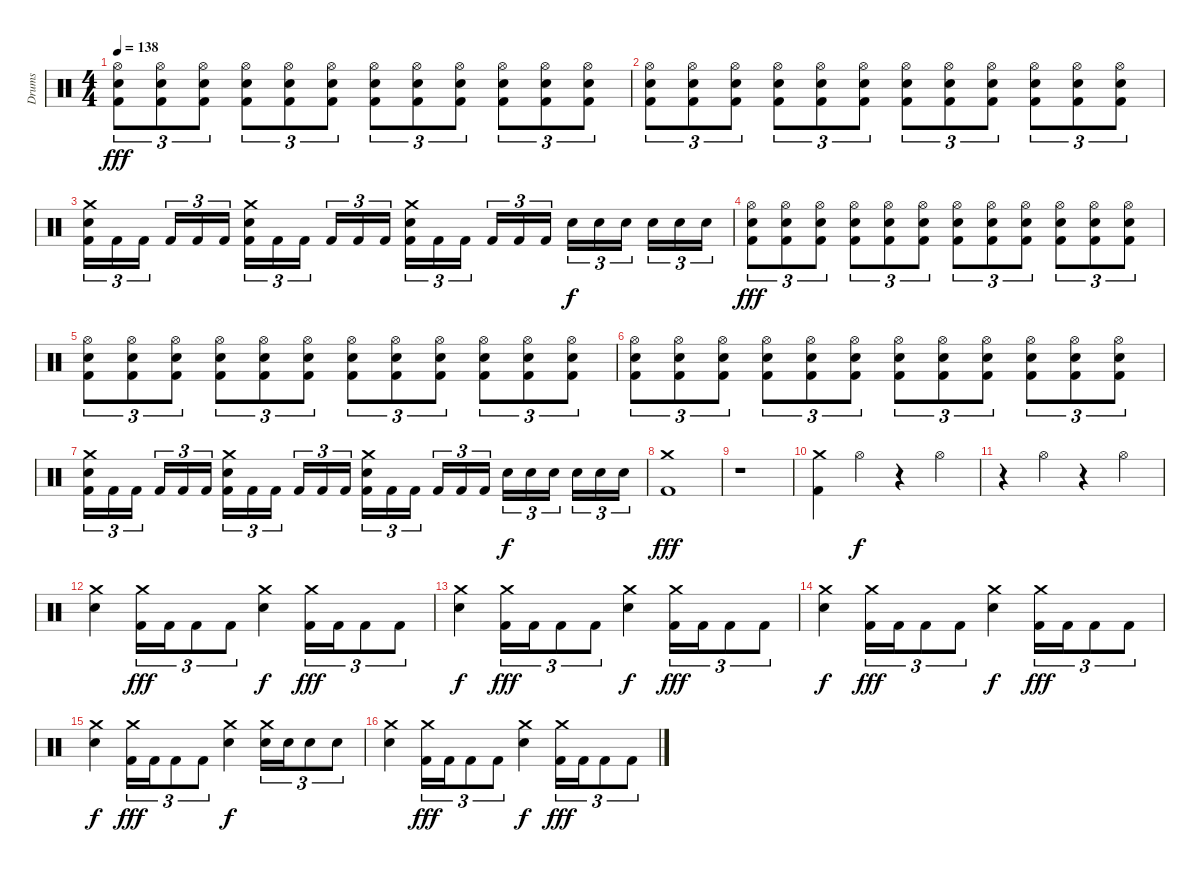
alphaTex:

\track ("Drums" "Drums") {instrument percussion}
\staff {score}
\articulation defaults
\ts (4 4)
\tempo 138
\clef neutral
\ks c
("Hi-Hat (open)" "Electric Snare (hit)" "Kick (hit) 2").8{tu (3 2) dy fff} ("Hi-Hat (open)" "Electric Snare (hit)" "Kick (hit) 2").8{tu (3 2)} ("Hi-Hat (open)" "Electric Snare (hit)" "Kick (hit) 2").8{tu (3 2)} ("Hi-Hat (open)" "Electric Snare (hit)" "Kick (hit) 2").8{tu (3 2)} ("Hi-Hat (open)" "Electric Snare (hit)" "Kick (hit) 2").8{tu (3 2)} ("Hi-Hat (open)" "Electric Snare (hit)" "Kick (hit) 2").8{tu (3 2)} ("Hi-Hat (open)" "Electric Snare (hit)" "Kick (hit) 2").8{tu (3 2)} ("Hi-Hat (open)" "Electric Snare (hit)" "Kick (hit) 2").8{tu (3 2)} ("Hi-Hat (open)" "Electric Snare (hit)" "Kick (hit) 2").8{tu (3 2)} ("Hi-Hat (open)" "Electric Snare (hit)" "Kick (hit) 2").8{tu (3 2)} ("Hi-Hat (open)" "Electric Snare (hit)" "Kick (hit) 2").8{tu (3 2)} ("Hi-Hat (open)" "Electric Snare (hit)" "Kick (hit) 2").8{tu (3 2)} |
("Hi-Hat (open)" "Electric Snare (hit)" "Kick (hit) 2").8{tu (3 2)} ("Hi-Hat (open)" "Electric Snare (hit)" "Kick (hit) 2").8{tu (3 2)} ("Hi-Hat (open)" "Electric Snare (hit)" "Kick (hit) 2").8{tu (3 2)} ("Hi-Hat (open)" "Electric Snare (hit)" "Kick (hit) 2").8{tu (3 2)} ("Hi-Hat (open)" "Electric Snare (hit)" "Kick (hit) 2").8{tu (3 2)} ("Hi-Hat (open)" "Electric Snare (hit)" "Kick (hit) 2").8{tu (3 2)} ("Hi-Hat (open)" "Electric Snare (hit)" "Kick (hit) 2").8{tu (3 2)} ("Hi-Hat (open)" "Electric Snare (hit)" "Kick (hit) 2").8{tu (3 2)} ("Hi-Hat (open)" "Electric Snare (hit)" "Kick (hit) 2").8{tu (3 2)} ("Hi-Hat (open)" "Electric Snare (hit)" "Kick (hit) 2").8{tu (3 2)} ("Hi-Hat (open)" "Electric Snare (hit)" "Kick (hit) 2").8{tu (3 2)} ("Hi-Hat (open)" "Electric Snare (hit)" "Kick (hit) 2").8{tu (3 2)} |
("Crash medium (hit)" "Electric Snare (hit)" "Kick (hit) 2").16{tu (3 2)} "Kick (hit) 2".16{tu (3 2)} "Kick (hit) 2".16{tu (3 2)} "Kick (hit) 2".16{tu (3 2)} "Kick (hit) 2".16{tu (3 2)} "Kick (hit) 2".16{tu (3 2)} ("Crash medium (hit)" "Electric Snare (hit)" "Kick (hit) 2").16{tu (3 2)} "Kick (hit) 2".16{tu (3 2)} "Kick (hit) 2".16{tu (3 2)} "Kick (hit) 2".16{tu (3 2)} "Kick (hit) 2".16{tu (3 2)} "Kick (hit) 2".16{tu (3 2)} ("Crash medium (hit)" "Electric Snare (hit)" "Kick (hit) 2").16{tu (3 2)} "Kick (hit) 2".16{tu (3 2)} "Kick (hit) 2".16{tu (3 2)} "Kick (hit) 2".16{tu (3 2)} "Kick (hit) 2".16{tu (3 2)} "Kick (hit) 2".16{tu (3 2)} "Electric Snare (hit)".16{tu (3 2) dy f} "Electric Snare (hit)".16{tu (3 2)} "Electric Snare (hit)".16{tu (3 2)} "Electric Snare (hit)".16{tu (3 2)} "Electric Snare (hit)".16{tu (3 2)} "Electric Snare (hit)".16{tu (3 2)} |
("Hi-Hat (open)" "Electric Snare (hit)" "Kick (hit) 2").8{tu (3 2) dy fff} ("Hi-Hat (open)" "Electric Snare (hit)" "Kick (hit) 2").8{tu (3 2)} ("Hi-Hat (open)" "Electric Snare (hit)" "Kick (hit) 2").8{tu (3 2)} ("Hi-Hat (open)" "Electric Snare (hit)" "Kick (hit) 2").8{tu (3 2)} ("Hi-Hat (open)" "Electric Snare (hit)" "Kick (hit) 2").8{tu (3 2)} ("Hi-Hat (open)" "Electric Snare (hit)" "Kick (hit) 2").8{tu (3 2)} ("Hi-Hat (open)" "Electric Snare (hit)" "Kick (hit) 2").8{tu (3 2)} ("Hi-Hat (open)" "Electric Snare (hit)" "Kick (hit) 2").8{tu (3 2)} ("Hi-Hat (open)" "Electric Snare (hit)" "Kick (hit) 2").8{tu (3 2)} ("Hi-Hat (open)" "Electric Snare (hit)" "Kick (hit) 2").8{tu (3 2)} ("Hi-Hat (open)" "Electric Snare (hit)" "Kick (hit) 2").8{tu (3 2)} ("Hi-Hat (open)" "Electric Snare (hit)" "Kick (hit) 2").8{tu (3 2)} |
("Hi-Hat (open)" "Electric Snare (hit)" "Kick (hit) 2").8{tu (3 2)} ("Hi-Hat (open)" "Electric Snare (hit)" "Kick (hit) 2").8{tu (3 2)} ("Hi-Hat (open)" "Electric Snare (hit)" "Kick (hit) 2").8{tu (3 2)} ("Hi-Hat (open)" "Electric Snare (hit)" "Kick (hit) 2").8{tu (3 2)} ("Hi-Hat (open)" "Electric Snare (hit)" "Kick (hit) 2").8{tu (3 2)} ("Hi-Hat (open)" "Electric Snare (hit)" "Kick (hit) 2").8{tu (3 2)} ("Hi-Hat (open)" "Electric Snare (hit)" "Kick (hit) 2").8{tu (3 2)} ("Hi-Hat (open)" "Electric Snare (hit)" "Kick (hit) 2").8{tu (3 2)} ("Hi-Hat (open)" "Electric Snare (hit)" "Kick (hit) 2").8{tu (3 2)} ("Hi-Hat (open)" "Electric Snare (hit)" "Kick (hit) 2").8{tu (3 2)} ("Hi-Hat (open)" "Electric Snare (hit)" "Kick (hit) 2").8{tu (3 2)} ("Hi-Hat (open)" "Electric Snare (hit)" "Kick (hit) 2").8{tu (3 2)} |
("Hi-Hat (open)" "Electric Snare (hit)" "Kick (hit) 2").8{tu (3 2)} ("Hi-Hat (open)" "Electric Snare (hit)" "Kick (hit) 2").8{tu (3 2)} ("Hi-Hat (open)" "Electric Snare (hit)" "Kick (hit) 2").8{tu (3 2)} ("Hi-Hat (open)" "Electric Snare (hit)" "Kick (hit) 2").8{tu (3 2)} ("Hi-Hat (open)" "Electric Snare (hit)" "Kick (hit) 2").8{tu (3 2)} ("Hi-Hat (open)" "Electric Snare (hit)" "Kick (hit) 2").8{tu (3 2)} ("Hi-Hat (open)" "Electric Snare (hit)" "Kick (hit) 2").8{tu (3 2)} ("Hi-Hat (open)" "Electric Snare (hit)" "Kick (hit) 2").8{tu (3 2)} ("Hi-Hat (open)" "Electric Snare (hit)" "Kick (hit) 2").8{tu (3 2)} ("Hi-Hat (open)" "Electric Snare (hit)" "Kick (hit) 2").8{tu (3 2)} ("Hi-Hat (open)" "Electric Snare (hit)" "Kick (hit) 2").8{tu (3 2)} ("Hi-Hat (open)" "Electric Snare (hit)" "Kick (hit) 2").8{tu (3 2)} |
("Crash medium (hit)" "Electric Snare (hit)" "Kick (hit) 2").16{tu (3 2)} "Kick (hit) 2".16{tu (3 2)} "Kick (hit) 2".16{tu (3 2)} "Kick (hit) 2".16{tu (3 2)} "Kick (hit) 2".16{tu (3 2)} "Kick (hit) 2".16{tu (3 2)} ("Crash medium (hit)" "Electric Snare (hit)" "Kick (hit) 2").16{tu (3 2)} "Kick (hit) 2".16{tu (3 2)} "Kick (hit) 2".16{tu (3 2)} "Kick (hit) 2".16{tu (3 2)} "Kick (hit) 2".16{tu (3 2)} "Kick (hit) 2".16{tu (3 2)} ("Crash medium (hit)" "Electric Snare (hit)" "Kick (hit) 2").16{tu (3 2)} "Kick (hit) 2".16{tu (3 2)} "Kick (hit) 2".16{tu (3 2)} "Kick (hit) 2".16{tu (3 2)} "Kick (hit) 2".16{tu (3 2)} "Kick (hit) 2".16{tu (3 2)} "Electric Snare (hit)".16{tu (3 2) dy f} "Electric Snare (hit)".16{tu (3 2)} "Electric Snare (hit)".16{tu (3 2)} "Electric Snare (hit)".16{tu (3 2)} "Electric Snare (hit)".16{tu (3 2)} "Electric Snare (hit)".16{tu (3 2)} |
("Crash medium (hit)" "Kick (hit) 2").1{dy fff} |
r.1 |
("Crash medium (hit)" "Kick (hit) 2").4 "Hi-Hat (open)".4{dy f} r.4 "Hi-Hat (open)".4 |
r.4 "Hi-Hat (open)".4 r.4 "Hi-Hat (open)".4 |
("Crash medium (hit)" "Electric Snare (hit)").4 ("Crash medium (hit)" "Kick (hit) 2").16{tu (3 2) dy fff} "Kick (hit) 2".16{tu (3 2)} "Kick (hit) 2".8{tu (3 2)} "Kick (hit) 2".8{tu (3 2)} ("Crash medium (hit)" "Electric Snare (hit)").4{dy f} ("Crash medium (hit)" "Kick (hit) 2").16{tu (3 2) dy fff} "Kick (hit) 2".16{tu (3 2)} "Kick (hit) 2".8{tu (3 2)} "Kick (hit) 2".8{tu (3 2)} |
("Crash medium (hit)" "Electric Snare (hit)").4{dy f} ("Crash medium (hit)" "Kick (hit) 2").16{tu (3 2) dy fff} "Kick (hit) 2".16{tu (3 2)} "Kick (hit) 2".8{tu (3 2)} "Kick (hit) 2".8{tu (3 2)} ("Crash medium (hit)" "Electric Snare (hit)").4{dy f} ("Crash medium (hit)" "Kick (hit) 2").16{tu (3 2) dy fff} "Kick (hit) 2".16{tu (3 2)} "Kick (hit) 2".8{tu (3 2)} "Kick (hit) 2".8{tu (3 2)} |
("Crash medium (hit)" "Electric Snare (hit)").4{dy f} ("Crash medium (hit)" "Kick (hit) 2").16{tu (3 2) dy fff} "Kick (hit) 2".16{tu (3 2)} "Kick (hit) 2".8{tu (3 2)} "Kick (hit) 2".8{tu (3 2)} ("Crash medium (hit)" "Electric Snare (hit)").4{dy f} ("Crash medium (hit)" "Kick (hit) 2").16{tu (3 2) dy fff} "Kick (hit) 2".16{tu (3 2)} "Kick (hit) 2".8{tu (3 2)} "Kick (hit) 2".8{tu (3 2)} |
("Crash medium (hit)" "Electric Snare (hit)").4{dy f} ("Crash medium (hit)" "Kick (hit) 2").16{tu (3 2) dy fff} "Kick (hit) 2".16{tu (3 2)} "Kick (hit) 2".8{tu (3 2)} "Kick (hit) 2".8{tu (3 2)} ("Crash medium (hit)" "Electric Snare (hit)").4{dy f} ("Crash medium (hit)" "Electric Snare (hit)").16{tu (3 2)} "Electric Snare (hit)".16{tu (3 2)} "Electric Snare (hit)".8{tu (3 2)} "Electric Snare (hit)".8{tu (3 2)} |
("Crash medium (hit)" "Electric Snare (hit)").4 ("Crash medium (hit)" "Kick (hit) 2").16{tu (3 2) dy fff} "Kick (hit) 2".16{tu (3 2)} "Kick (hit) 2".8{tu (3 2)} "Kick (hit) 2".8{tu (3 2)} ("Crash medium (hit)" "Electric Snare (hit)").4{dy f} ("Crash medium (hit)" "Kick (hit) 2").16{tu (3 2) dy fff} "Kick (hit) 2".16{tu (3 2)} "Kick (hit) 2".8{tu (3 2)} "Kick (hit) 2".8{tu (3 2)}
